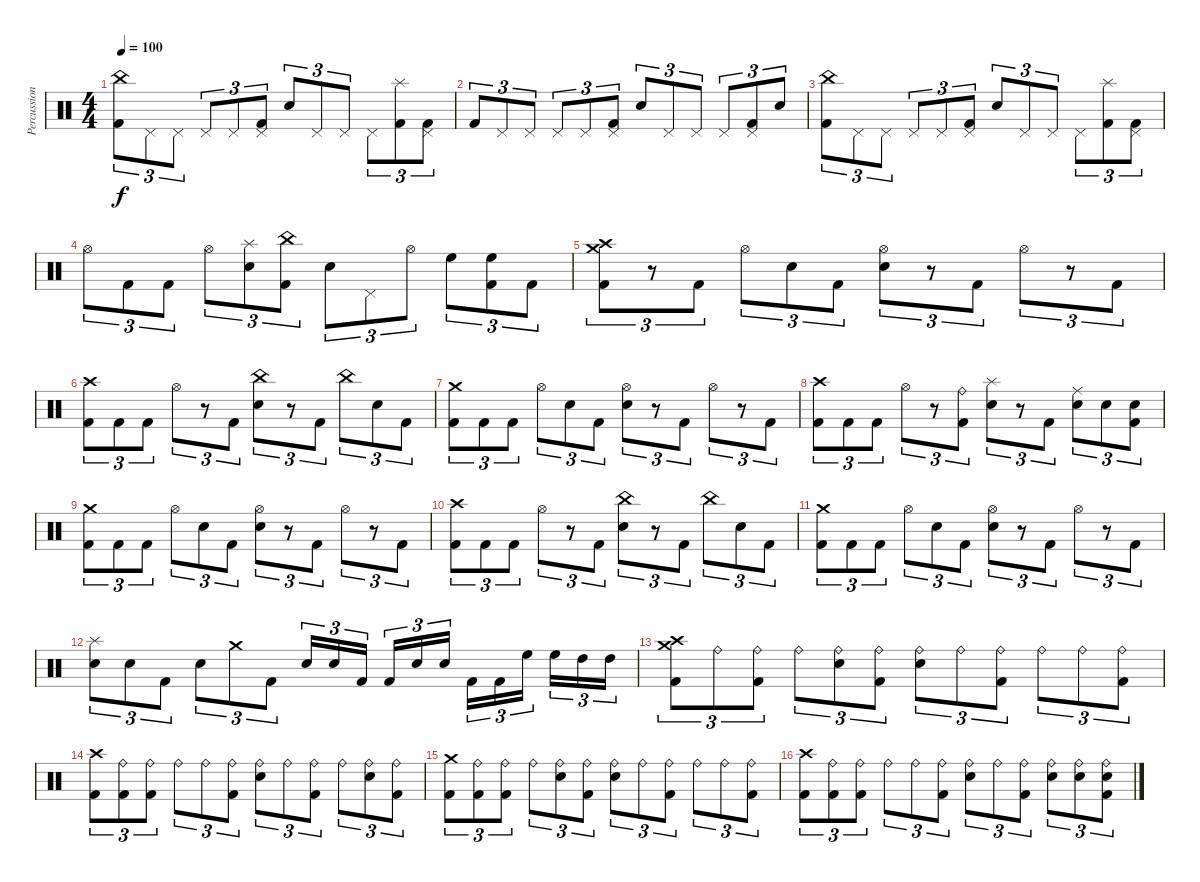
\track ("Percussion" "Percussion") {instrument percussion}
\staff {score}
\articulation defaults
\ts (4 4)
\tempo 100
\clef neutral
\ks c
("China (hit)" "Kick (hit) 2").8{tu (3 2) dy f} "Pedal Hi-Hat (hit)".8{tu (3 2)} "Pedal Hi-Hat (hit)".8{tu (3 2)} "Pedal Hi-Hat (hit)".8{tu (3 2)} "Pedal Hi-Hat (hit)".8{tu (3 2)} ("Pedal Hi-Hat (hit)" "Kick (hit) 2").8{tu (3 2)} "Electric Snare (hit)".8{tu (3 2)} "Pedal Hi-Hat (hit)".8{tu (3 2)} "Pedal Hi-Hat (hit)".8{tu (3 2)} "Pedal Hi-Hat (hit)".8{tu (3 2)} ("Splash (hit)" "Kick (hit) 2").8{tu (3 2)} ("Pedal Hi-Hat (hit)" "Kick (hit) 2").8{tu (3 2)} |
"Kick (hit) 2".8{tu (3 2)} "Pedal Hi-Hat (hit)".8{tu (3 2)} "Pedal Hi-Hat (hit)".8{tu (3 2)} "Pedal Hi-Hat (hit)".8{tu (3 2)} "Pedal Hi-Hat (hit)".8{tu (3 2)} ("Pedal Hi-Hat (hit)" "Kick (hit) 2").8{tu (3 2)} "Electric Snare (hit)".8{tu (3 2)} "Pedal Hi-Hat (hit)".8{tu (3 2)} "Pedal Hi-Hat (hit)".8{tu (3 2)} "Pedal Hi-Hat (hit)".8{tu (3 2)} ("Pedal Hi-Hat (hit)" "Kick (hit) 2").8{tu (3 2)} "Electric Snare (hit)".8{tu (3 2)} |
("China (hit)" "Kick (hit) 2").8{tu (3 2)} "Pedal Hi-Hat (hit)".8{tu (3 2)} "Pedal Hi-Hat (hit)".8{tu (3 2)} "Pedal Hi-Hat (hit)".8{tu (3 2)} "Pedal Hi-Hat (hit)".8{tu (3 2)} ("Pedal Hi-Hat (hit)" "Kick (hit) 2").8{tu (3 2)} "Electric Snare (hit)".8{tu (3 2)} "Pedal Hi-Hat (hit)".8{tu (3 2)} "Pedal Hi-Hat (hit)".8{tu (3 2)} "Pedal Hi-Hat (hit)".8{tu (3 2)} ("Splash (hit)" "Kick (hit) 2").8{tu (3 2)} ("Pedal Hi-Hat (hit)" "Kick (hit) 2").8{tu (3 2)} |
"Hi-Hat (open)".8{tu (3 2)} "Kick (hit) 2".8{tu (3 2)} "Kick (hit) 2".8{tu (3 2)} "Hi-Hat (open)".8{tu (3 2)} ("Splash (hit)" "Electric Snare (hit)").8{tu (3 2)} ("China (hit)" "Kick (hit) 2").8{tu (3 2)} "Electric Snare (hit)".8{tu (3 2)} "Pedal Hi-Hat (hit)".8{tu (3 2)} "Hi-Hat (open)".8{tu (3 2)} "High Floor Tom (hit)".8{tu (3 2)} ("High Floor Tom (hit)" "Kick (hit) 2").8{tu (3 2)} "Kick (hit) 2".8{tu (3 2)} |
("Crash medium (hit)" "Crash high (hit)" "Kick (hit) 2").8{tu (3 2)} r.8{tu (3 2)} "Kick (hit) 2".8{tu (3 2)} "Hi-Hat (open)".8{tu (3 2)} "Electric Snare (hit)".8{tu (3 2)} "Kick (hit) 2".8{tu (3 2)} ("Hi-Hat (open)" "Electric Snare (hit)").8{tu (3 2)} r.8{tu (3 2)} "Kick (hit) 2".8{tu (3 2)} "Hi-Hat (open)".8{tu (3 2)} r.8{tu (3 2)} "Kick (hit) 2".8{tu (3 2)} |
("Crash high (hit)" "Kick (hit) 2").8{tu (3 2)} "Kick (hit) 2".8{tu (3 2)} "Kick (hit) 2".8{tu (3 2)} "Hi-Hat (open)".8{tu (3 2)} r.8{tu (3 2)} "Kick (hit) 2".8{tu (3 2)} ("China (hit)" "Electric Snare (hit)").8{tu (3 2)} r.8{tu (3 2)} "Kick (hit) 2".8{tu (3 2)} "China (hit)".8{tu (3 2)} "Electric Snare (hit)".8{tu (3 2)} "Kick (hit) 2".8{tu (3 2)} |
("Crash medium (hit)" "Kick (hit) 2").8{tu (3 2)} "Kick (hit) 2".8{tu (3 2)} "Kick (hit) 2".8{tu (3 2)} "Hi-Hat (open)".8{tu (3 2)} "Electric Snare (hit)".8{tu (3 2)} "Kick (hit) 2".8{tu (3 2)} ("Hi-Hat (open)" "Electric Snare (hit)").8{tu (3 2)} r.8{tu (3 2)} "Kick (hit) 2".8{tu (3 2)} "Hi-Hat (open)".8{tu (3 2)} r.8{tu (3 2)} "Kick (hit) 2".8{tu (3 2)} |
("Crash high (hit)" "Kick (hit) 2").8{tu (3 2)} "Kick (hit) 2".8{tu (3 2)} "Kick (hit) 2".8{tu (3 2)} "Hi-Hat (open)".8{tu (3 2)} r.8{tu (3 2)} ("Ride (bell)" "Kick (hit) 2").8{tu (3 2)} ("Splash (hit)" "Electric Snare (hit)").8{tu (3 2)} r.8{tu (3 2)} "Kick (hit) 2".8{tu (3 2)} ("Ride (middle)" "Electric Snare (hit)").8{tu (3 2)} "Electric Snare (hit)".8{tu (3 2)} ("Electric Snare (hit)" "Kick (hit) 2").8{tu (3 2)} |
("Crash medium (hit)" "Kick (hit) 2").8{tu (3 2)} "Kick (hit) 2".8{tu (3 2)} "Kick (hit) 2".8{tu (3 2)} "Hi-Hat (open)".8{tu (3 2)} "Electric Snare (hit)".8{tu (3 2)} "Kick (hit) 2".8{tu (3 2)} ("Hi-Hat (open)" "Electric Snare (hit)").8{tu (3 2)} r.8{tu (3 2)} "Kick (hit) 2".8{tu (3 2)} "Hi-Hat (open)".8{tu (3 2)} r.8{tu (3 2)} "Kick (hit) 2".8{tu (3 2)} |
("Crash high (hit)" "Kick (hit) 2").8{tu (3 2)} "Kick (hit) 2".8{tu (3 2)} "Kick (hit) 2".8{tu (3 2)} "Hi-Hat (open)".8{tu (3 2)} r.8{tu (3 2)} "Kick (hit) 2".8{tu (3 2)} ("China (hit)" "Electric Snare (hit)").8{tu (3 2)} r.8{tu (3 2)} "Kick (hit) 2".8{tu (3 2)} "China (hit)".8{tu (3 2)} "Electric Snare (hit)".8{tu (3 2)} "Kick (hit) 2".8{tu (3 2)} |
("Crash medium (hit)" "Kick (hit) 2").8{tu (3 2)} "Kick (hit) 2".8{tu (3 2)} "Kick (hit) 2".8{tu (3 2)} "Hi-Hat (open)".8{tu (3 2)} "Electric Snare (hit)".8{tu (3 2)} "Kick (hit) 2".8{tu (3 2)} ("Hi-Hat (open)" "Electric Snare (hit)").8{tu (3 2)} r.8{tu (3 2)} "Kick (hit) 2".8{tu (3 2)} "Hi-Hat (open)".8{tu (3 2)} r.8{tu (3 2)} "Kick (hit) 2".8{tu (3 2)} |
("Splash (hit)" "Electric Snare (hit)").8{tu (3 2)} "Electric Snare (hit)".8{tu (3 2)} "Kick (hit) 2".8{tu (3 2)} "Electric Snare (hit)".8{tu (3 2)} "Crash medium (hit)".8{tu (3 2)} "Kick (hit) 2".8{tu (3 2)} "Electric Snare (hit)".16{tu (3 2)} "Electric Snare (hit)".16{tu (3 2)} "Kick (hit) 2".16{tu (3 2) beam splitsecondary} "Kick (hit) 2".16{tu (3 2)} "Electric Snare (hit)".16{tu (3 2)} "Electric Snare (hit)".16{tu (3 2)} "Kick (hit) 2".16{tu (3 2)} "Kick (hit) 2".16{tu (3 2)} "High Floor Tom (hit)".16{tu (3 2) beam splitsecondary} "High Floor Tom (hit)".16{tu (3 2)} "High Tom (hit)".16{tu (3 2)} "High Tom (hit)".16{tu (3 2)} |
("Crash medium (hit)" "Crash high (hit)" "Kick (hit) 2").8{tu (3 2)} "Ride (bell)".8{tu (3 2)} ("Ride (bell)" "Kick (hit) 2").8{tu (3 2)} "Ride (bell)".8{tu (3 2)} ("Ride (bell)" "Electric Snare (hit)").8{tu (3 2)} ("Ride (bell)" "Kick (hit) 2").8{tu (3 2)} ("Ride (bell)" "Electric Snare (hit)").8{tu (3 2)} "Ride (bell)".8{tu (3 2)} ("Ride (bell)" "Kick (hit) 2").8{tu (3 2)} "Ride (bell)".8{tu (3 2)} "Ride (bell)".8{tu (3 2)} ("Ride (bell)" "Kick (hit) 2").8{tu (3 2)} |
("Crash high (hit)" "Kick (hit) 2").8{tu (3 2)} ("Ride (bell)" "Kick (hit) 2").8{tu (3 2)} ("Ride (bell)" "Kick (hit) 2").8{tu (3 2)} "Ride (bell)".8{tu (3 2)} "Ride (bell)".8{tu (3 2)} ("Ride (bell)" "Kick (hit) 2").8{tu (3 2)} ("Ride (bell)" "Electric Snare (hit)").8{tu (3 2)} "Ride (bell)".8{tu (3 2)} ("Ride (bell)" "Kick (hit) 2").8{tu (3 2)} "Ride (bell)".8{tu (3 2)} ("Ride (bell)" "Electric Snare (hit)").8{tu (3 2)} ("Ride (bell)" "Kick (hit) 2").8{tu (3 2)} |
("Crash medium (hit)" "Kick (hit) 2").8{tu (3 2)} ("Ride (bell)" "Kick (hit) 2").8{tu (3 2)} ("Ride (bell)" "Kick (hit) 2").8{tu (3 2)} "Ride (bell)".8{tu (3 2)} ("Ride (bell)" "Electric Snare (hit)").8{tu (3 2)} ("Ride (bell)" "Kick (hit) 2").8{tu (3 2)} ("Ride (bell)" "Electric Snare (hit)").8{tu (3 2)} "Ride (bell)".8{tu (3 2)} ("Ride (bell)" "Kick (hit) 2").8{tu (3 2)} "Ride (bell)".8{tu (3 2)} "Ride (bell)".8{tu (3 2)} ("Ride (bell)" "Kick (hit) 2").8{tu (3 2)} |
("Crash high (hit)" "Kick (hit) 2").8{tu (3 2)} ("Ride (bell)" "Kick (hit) 2").8{tu (3 2)} ("Ride (bell)" "Kick (hit) 2").8{tu (3 2)} "Ride (bell)".8{tu (3 2)} "Ride (bell)".8{tu (3 2)} ("Ride (bell)" "Kick (hit) 2").8{tu (3 2)} ("Ride (bell)" "Electric Snare (hit)").8{tu (3 2)} "Ride (bell)".8{tu (3 2)} ("Ride (bell)" "Kick (hit) 2").8{tu (3 2)} ("Ride (bell)" "Electric Snare (hit)").8{tu (3 2)} ("Ride (bell)" "Electric Snare (hit)").8{tu (3 2)} ("Ride (bell)" "Electric Snare (hit)" "Kick (hit) 2").8{tu (3 2)}
